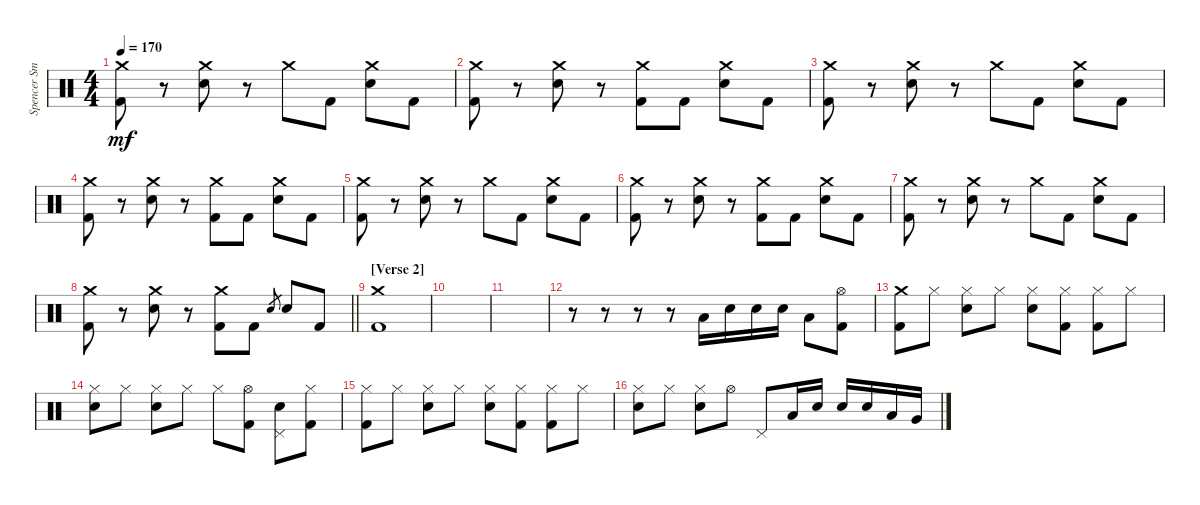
\track ("Spencer Smith" "Spencer Sm") {instrument percussion}
\staff {score}
\articulation defaults
\ts (4 4)
\tempo 170
\clef neutral
\ks c
("Crash medium (hit)" "Kick (hit) 2").8{dy mf} r.8 ("Crash medium (hit)" "Electric Snare (hit)").8 r.8 "Crash medium (hit)".8 "Kick (hit) 2".8 ("Crash medium (hit)" "Electric Snare (hit)").8 "Kick (hit) 2".8 |
("Crash medium (hit)" "Kick (hit) 2").8 r.8 ("Crash medium (hit)" "Electric Snare (hit)").8 r.8 ("Crash medium (hit)" "Kick (hit) 2").8 "Kick (hit) 2".8 ("Crash medium (hit)" "Electric Snare (hit)").8 "Kick (hit) 2".8 |
("Crash medium (hit)" "Kick (hit) 2").8 r.8 ("Crash medium (hit)" "Electric Snare (hit)").8 r.8 "Crash medium (hit)".8 "Kick (hit) 2".8 ("Crash medium (hit)" "Electric Snare (hit)").8 "Kick (hit) 2".8 |
("Crash medium (hit)" "Kick (hit) 2").8 r.8 ("Crash medium (hit)" "Electric Snare (hit)").8 r.8 ("Crash medium (hit)" "Kick (hit) 2").8 "Kick (hit) 2".8 ("Crash medium (hit)" "Electric Snare (hit)").8 "Kick (hit) 2".8 |
("Crash medium (hit)" "Kick (hit) 2").8 r.8 ("Crash medium (hit)" "Electric Snare (hit)").8 r.8 "Crash medium (hit)".8 "Kick (hit) 2".8 ("Crash medium (hit)" "Electric Snare (hit)").8 "Kick (hit) 2".8 |
("Crash medium (hit)" "Kick (hit) 2").8 r.8 ("Crash medium (hit)" "Electric Snare (hit)").8 r.8 ("Crash medium (hit)" "Kick (hit) 2").8 "Kick (hit) 2".8 ("Crash medium (hit)" "Electric Snare (hit)").8 "Kick (hit) 2".8 |
("Crash medium (hit)" "Kick (hit) 2").8 r.8 ("Crash medium (hit)" "Electric Snare (hit)").8 r.8 "Crash medium (hit)".8 "Kick (hit) 2".8 ("Crash medium (hit)" "Electric Snare (hit)").8 "Kick (hit) 2".8 |
\barLineRight lightlight
("Crash medium (hit)" "Kick (hit) 2").8 r.8 ("Crash medium (hit)" "Electric Snare (hit)").8 r.8 ("Crash medium (hit)" "Kick (hit) 2").8 "Kick (hit) 2".8 "Electric Snare (hit)".8{gr} "Electric Snare (hit)".8 "Kick (hit) 2".8 |
\section ("" "[Verse 2]")
("Crash medium (hit)" "Kick (hit) 2").1 |
|
|
r.8 r.8 r.8 r.8 "Low Tom (hit)".16 "Electric Snare (hit)".16 "Electric Snare (hit)".16 "Electric Snare (hit)".16 "Low Tom (hit)".8 ("Hi-Hat (open)" "Kick (hit) 2").8 |
("Crash medium (hit)" "Kick (hit) 2").8 "Hi-Hat (closed)".8 ("Hi-Hat (closed)" "Electric Snare (hit)").8 "Hi-Hat (closed)".8 ("Hi-Hat (closed)" "Electric Snare (hit)").8 ("Hi-Hat (closed)" "Kick (hit) 2").8 ("Hi-Hat (closed)" "Kick (hit) 2").8 "Hi-Hat (closed)".8 |
("Hi-Hat (closed)" "Electric Snare (hit)").8 "Hi-Hat (closed)".8 ("Hi-Hat (closed)" "Electric Snare (hit)").8 "Hi-Hat (closed)".8 "Hi-Hat (closed)".8 ("Hi-Hat (open)" "Kick (hit) 2").8 ("Pedal Hi-Hat (hit)" "Electric Snare (hit)").8 ("Hi-Hat (closed)" "Kick (hit) 2").8 |
("Hi-Hat (closed)" "Kick (hit) 2").8 "Hi-Hat (closed)".8 ("Hi-Hat (closed)" "Electric Snare (hit)").8 "Hi-Hat (closed)".8 ("Hi-Hat (closed)" "Electric Snare (hit)").8 ("Hi-Hat (closed)" "Kick (hit) 2").8 ("Hi-Hat (closed)" "Kick (hit) 2").8 "Hi-Hat (closed)".8 |
("Hi-Hat (closed)" "Electric Snare (hit)").8 "Hi-Hat (closed)".8 ("Hi-Hat (closed)" "Electric Snare (hit)").8 "Hi-Hat (open)".8 "Pedal Hi-Hat (hit)".8 "Low Tom (hit)".16 "Electric Snare (hit)".16 "Electric Snare (hit)".16 "Electric Snare (hit)".16 "Low Tom (hit)".16 "Very Low Tom (hit)".16
